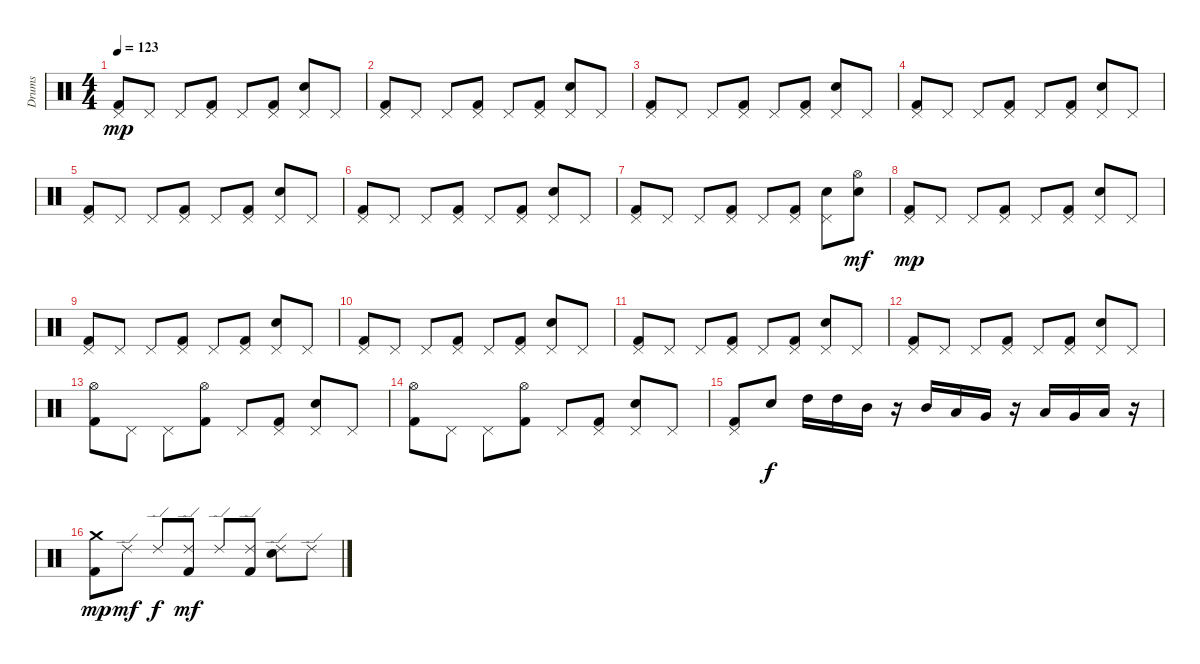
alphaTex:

\track ("Drums" "Drums") {instrument percussion}
\staff {score}
\articulation defaults
\ts (4 4)
\tempo 123
\clef neutral
\ks c
("Kick (hit) 2" "Pedal Hi-Hat (hit)").8{dy mp} "Pedal Hi-Hat (hit)".8 "Pedal Hi-Hat (hit)".8 ("Kick (hit) 2" "Pedal Hi-Hat (hit)").8 "Pedal Hi-Hat (hit)".8 ("Kick (hit) 2" "Pedal Hi-Hat (hit)").8 ("Electric Snare (hit)" "Pedal Hi-Hat (hit)").8 "Pedal Hi-Hat (hit)".8 |
("Kick (hit) 2" "Pedal Hi-Hat (hit)").8 "Pedal Hi-Hat (hit)".8 "Pedal Hi-Hat (hit)".8 ("Kick (hit) 2" "Pedal Hi-Hat (hit)").8 "Pedal Hi-Hat (hit)".8 ("Kick (hit) 2" "Pedal Hi-Hat (hit)").8 ("Electric Snare (hit)" "Pedal Hi-Hat (hit)").8 "Pedal Hi-Hat (hit)".8 |
("Kick (hit) 2" "Pedal Hi-Hat (hit)").8 "Pedal Hi-Hat (hit)".8 "Pedal Hi-Hat (hit)".8 ("Kick (hit) 2" "Pedal Hi-Hat (hit)").8 "Pedal Hi-Hat (hit)".8 ("Kick (hit) 2" "Pedal Hi-Hat (hit)").8 ("Electric Snare (hit)" "Pedal Hi-Hat (hit)").8 "Pedal Hi-Hat (hit)".8 |
("Kick (hit) 2" "Pedal Hi-Hat (hit)").8 "Pedal Hi-Hat (hit)".8 "Pedal Hi-Hat (hit)".8 ("Kick (hit) 2" "Pedal Hi-Hat (hit)").8 "Pedal Hi-Hat (hit)".8 ("Kick (hit) 2" "Pedal Hi-Hat (hit)").8 ("Electric Snare (hit)" "Pedal Hi-Hat (hit)").8 "Pedal Hi-Hat (hit)".8 |
("Kick (hit) 2" "Pedal Hi-Hat (hit)").8 "Pedal Hi-Hat (hit)".8 "Pedal Hi-Hat (hit)".8 ("Kick (hit) 2" "Pedal Hi-Hat (hit)").8 "Pedal Hi-Hat (hit)".8 ("Kick (hit) 2" "Pedal Hi-Hat (hit)").8 ("Electric Snare (hit)" "Pedal Hi-Hat (hit)").8 "Pedal Hi-Hat (hit)".8 |
("Kick (hit) 2" "Pedal Hi-Hat (hit)").8 "Pedal Hi-Hat (hit)".8 "Pedal Hi-Hat (hit)".8 ("Kick (hit) 2" "Pedal Hi-Hat (hit)").8 "Pedal Hi-Hat (hit)".8 ("Kick (hit) 2" "Pedal Hi-Hat (hit)").8 ("Electric Snare (hit)" "Pedal Hi-Hat (hit)").8 "Pedal Hi-Hat (hit)".8 |
("Kick (hit) 2" "Pedal Hi-Hat (hit)").8 "Pedal Hi-Hat (hit)".8 "Pedal Hi-Hat (hit)".8 ("Kick (hit) 2" "Pedal Hi-Hat (hit)").8 "Pedal Hi-Hat (hit)".8 ("Kick (hit) 2" "Pedal Hi-Hat (hit)").8 ("Electric Snare (hit)" "Pedal Hi-Hat (hit)").8 ("Electric Snare (hit)" "Hi-Hat (open)").8{dy mf} |
("Kick (hit) 2" "Pedal Hi-Hat (hit)").8{dy mp} "Pedal Hi-Hat (hit)".8 "Pedal Hi-Hat (hit)".8 ("Kick (hit) 2" "Pedal Hi-Hat (hit)").8 "Pedal Hi-Hat (hit)".8 ("Kick (hit) 2" "Pedal Hi-Hat (hit)").8 ("Electric Snare (hit)" "Pedal Hi-Hat (hit)").8 "Pedal Hi-Hat (hit)".8 |
("Kick (hit) 2" "Pedal Hi-Hat (hit)").8 "Pedal Hi-Hat (hit)".8 "Pedal Hi-Hat (hit)".8 ("Kick (hit) 2" "Pedal Hi-Hat (hit)").8 "Pedal Hi-Hat (hit)".8 ("Kick (hit) 2" "Pedal Hi-Hat (hit)").8 ("Electric Snare (hit)" "Pedal Hi-Hat (hit)").8 "Pedal Hi-Hat (hit)".8 |
("Kick (hit) 2" "Pedal Hi-Hat (hit)").8 "Pedal Hi-Hat (hit)".8 "Pedal Hi-Hat (hit)".8 ("Kick (hit) 2" "Pedal Hi-Hat (hit)").8 "Pedal Hi-Hat (hit)".8 ("Kick (hit) 2" "Pedal Hi-Hat (hit)").8 ("Electric Snare (hit)" "Pedal Hi-Hat (hit)").8 "Pedal Hi-Hat (hit)".8 |
("Kick (hit) 2" "Pedal Hi-Hat (hit)").8 "Pedal Hi-Hat (hit)".8 "Pedal Hi-Hat (hit)".8 ("Kick (hit) 2" "Pedal Hi-Hat (hit)").8 "Pedal Hi-Hat (hit)".8 ("Kick (hit) 2" "Pedal Hi-Hat (hit)").8 ("Electric Snare (hit)" "Pedal Hi-Hat (hit)").8 "Pedal Hi-Hat (hit)".8 |
("Kick (hit) 2" "Pedal Hi-Hat (hit)").8 "Pedal Hi-Hat (hit)".8 "Pedal Hi-Hat (hit)".8 ("Kick (hit) 2" "Pedal Hi-Hat (hit)").8 "Pedal Hi-Hat (hit)".8 ("Kick (hit) 2" "Pedal Hi-Hat (hit)").8 ("Electric Snare (hit)" "Pedal Hi-Hat (hit)").8 "Pedal Hi-Hat (hit)".8 |
("Kick (hit) 2" "Hi-Hat (open)").8 "Pedal Hi-Hat (hit)".8 "Pedal Hi-Hat (hit)".8 ("Kick (hit) 2" "Hi-Hat (open)").8 "Pedal Hi-Hat (hit)".8 ("Kick (hit) 2" "Pedal Hi-Hat (hit)").8 ("Electric Snare (hit)" "Pedal Hi-Hat (hit)").8 "Pedal Hi-Hat (hit)".8 |
("Kick (hit) 2" "Hi-Hat (open)").8 "Pedal Hi-Hat (hit)".8 "Pedal Hi-Hat (hit)".8 ("Kick (hit) 2" "Hi-Hat (open)").8 "Pedal Hi-Hat (hit)".8 ("Kick (hit) 2" "Pedal Hi-Hat (hit)").8 ("Electric Snare (hit)" "Pedal Hi-Hat (hit)").8 "Pedal Hi-Hat (hit)".8 |
("Kick (hit) 2" "Pedal Hi-Hat (hit)").8 "Electric Snare (hit)".8{dy f} "High Tom (hit)".16 "High Tom (hit)".16 "Mid Tom (hit)".16 r.16 "Mid Tom (hit)".16 "Low Tom (hit)".16 "Very Low Tom (hit)".16 r.16 "Low Tom (hit)".16 "Very Low Tom (hit)".16 "Low Floor Tom (hit)".16 r.16 |
("Kick (hit) 2" "Crash medium (hit)").8{dy mp} "Ride (edge) 2".8{dy mf} "Ride (edge) 2".8{dy f} ("Kick (hit) 2" "Ride (edge) 2").8{dy mf} "Ride (edge) 2".8 ("Kick (hit) 2" "Ride (edge) 2").8 ("Electric Snare (hit)" "Ride (edge) 2").8 "Ride (edge) 2".8
